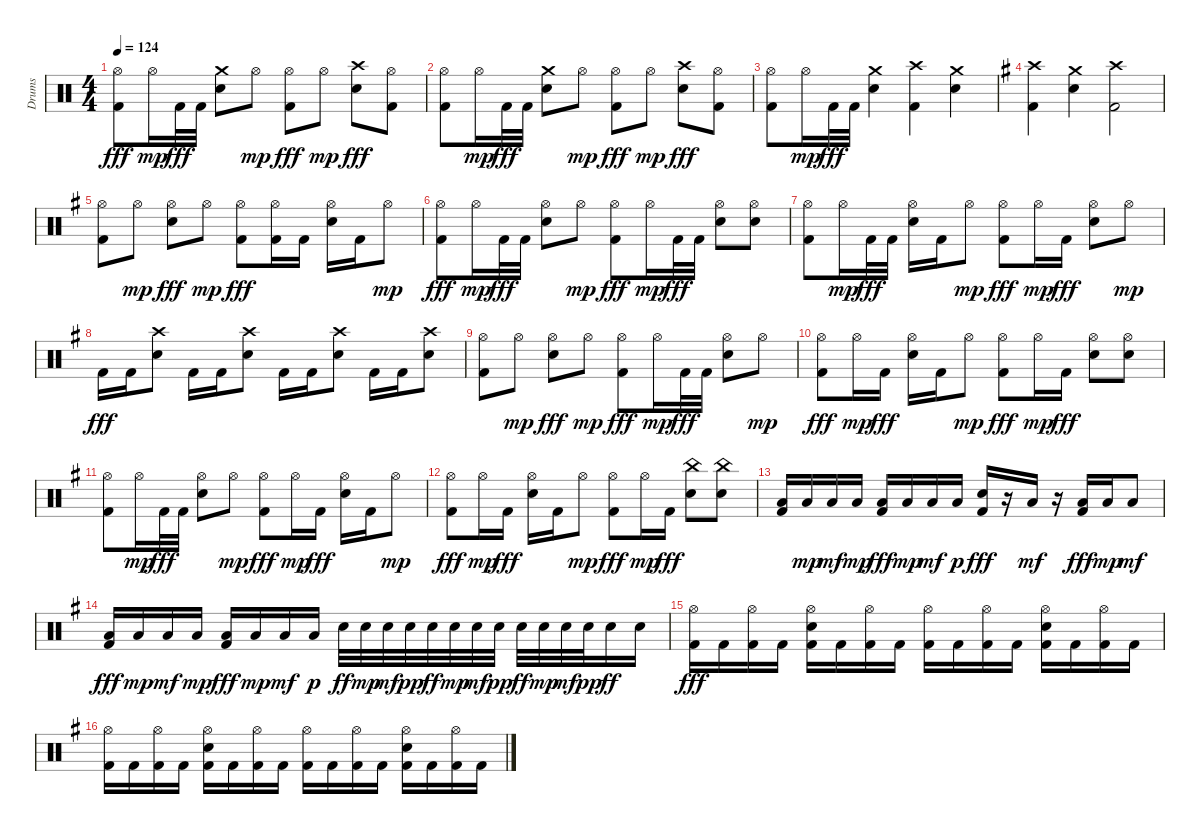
\track ("Drums" "Drums") {instrument percussion}
\staff {score}
\articulation defaults
\ts (4 4)
\tempo 124
\clef neutral
\ks c
("Hi-Hat (open)" "Kick (hit) 2").8{dy fff} "Hi-Hat (open)".16{dy mp} "Kick (hit) 2".32{dy fff} "Kick (hit) 2".32 ("Crash medium (hit)" "Electric Snare (hit)").8 "Hi-Hat (open)".8{dy mp} ("Hi-Hat (open)" "Kick (hit) 2").8{dy fff} "Hi-Hat (open)".8{dy mp} ("Crash high (hit)" "Electric Snare (hit)").8{dy fff} ("Hi-Hat (open)" "Kick (hit) 2").8 |
("Hi-Hat (open)" "Kick (hit) 2").8 "Hi-Hat (open)".16{dy mp} "Kick (hit) 2".32{dy fff} "Kick (hit) 2".32 ("Crash medium (hit)" "Electric Snare (hit)").8 "Hi-Hat (open)".8{dy mp} ("Hi-Hat (open)" "Kick (hit) 2").8{dy fff} "Hi-Hat (open)".8{dy mp} ("Crash high (hit)" "Electric Snare (hit)").8{dy fff} ("Hi-Hat (open)" "Kick (hit) 2").8 |
("Hi-Hat (open)" "Kick (hit) 2").8 "Hi-Hat (open)".16{dy mp} "Kick (hit) 2".32{dy fff} "Kick (hit) 2".32 ("Crash medium (hit)" "Electric Snare (hit)").4 ("Crash high (hit)" "Kick (hit) 2").4 ("Crash medium (hit)" "Electric Snare (hit)").4 |
\ks g
("Crash high (hit)" "Kick (hit) 2").4 ("Crash medium (hit)" "Electric Snare (hit)").4 ("Crash high (hit)" "Kick (hit) 2").2 |
("Hi-Hat (open)" "Kick (hit) 2").8 "Hi-Hat (open)".8{dy mp} ("Hi-Hat (open)" "Electric Snare (hit)").8{dy fff} "Hi-Hat (open)".8{dy mp} ("Hi-Hat (open)" "Kick (hit) 2").8{dy fff} ("Hi-Hat (open)" "Kick (hit) 2").16 "Kick (hit) 2".16 ("Hi-Hat (open)" "Electric Snare (hit)").16 "Kick (hit) 2".16 "Hi-Hat (open)".8{dy mp} |
("Hi-Hat (open)" "Kick (hit) 2").8{dy fff} "Hi-Hat (open)".16{dy mp} "Kick (hit) 2".32{dy fff} "Kick (hit) 2".32 ("Hi-Hat (open)" "Electric Snare (hit)").8 "Hi-Hat (open)".8{dy mp} ("Hi-Hat (open)" "Kick (hit) 2").8{dy fff} "Hi-Hat (open)".16{dy mp} "Kick (hit) 2".32{dy fff} "Kick (hit) 2".32 ("Hi-Hat (open)" "Electric Snare (hit)").8 ("Hi-Hat (open)" "Electric Snare (hit)").8 |
("Hi-Hat (open)" "Kick (hit) 2").8 "Hi-Hat (open)".16{dy mp} "Kick (hit) 2".32{dy fff} "Kick (hit) 2".32 ("Hi-Hat (open)" "Electric Snare (hit)").16 "Kick (hit) 2".16 "Hi-Hat (open)".8{dy mp} ("Hi-Hat (open)" "Kick (hit) 2").8{dy fff} "Hi-Hat (open)".16{dy mp} "Kick (hit) 2".16{dy fff} ("Hi-Hat (open)" "Electric Snare (hit)").8 "Hi-Hat (open)".8{dy mp} |
"Kick (hit) 2".16{dy fff} "Kick (hit) 2".16 ("Crash high (hit)" "Electric Snare (hit)").8 "Kick (hit) 2".16 "Kick (hit) 2".16 ("Crash high (hit)" "Electric Snare (hit)").8 "Kick (hit) 2".16 "Kick (hit) 2".16 ("Crash high (hit)" "Electric Snare (hit)").8 "Kick (hit) 2".16 "Kick (hit) 2".16 ("Crash high (hit)" "Electric Snare (hit)").8 |
("Hi-Hat (open)" "Kick (hit) 2").8 "Hi-Hat (open)".8{dy mp} ("Hi-Hat (open)" "Electric Snare (hit)").8{dy fff} "Hi-Hat (open)".8{dy mp} ("Hi-Hat (open)" "Kick (hit) 2").8{dy fff} "Hi-Hat (open)".16{dy mp} "Kick (hit) 2".32{dy fff} "Kick (hit) 2".32 ("Hi-Hat (open)" "Electric Snare (hit)").8 "Hi-Hat (open)".8{dy mp} |
("Hi-Hat (open)" "Kick (hit) 2").8{dy fff} "Hi-Hat (open)".16{dy mp} "Kick (hit) 2".16{dy fff} ("Hi-Hat (open)" "Electric Snare (hit)").16 "Kick (hit) 2".16 "Hi-Hat (open)".8{dy mp} ("Hi-Hat (open)" "Kick (hit) 2").8{dy fff} "Hi-Hat (open)".16{dy mp} "Kick (hit) 2".16{dy fff} ("Hi-Hat (open)" "Electric Snare (hit)").8 ("Hi-Hat (open)" "Electric Snare (hit)").8 |
("Hi-Hat (open)" "Kick (hit) 2").8 "Hi-Hat (open)".16{dy mp} "Kick (hit) 2".32{dy fff} "Kick (hit) 2".32 ("Hi-Hat (open)" "Electric Snare (hit)").8 "Hi-Hat (open)".8{dy mp} ("Hi-Hat (open)" "Kick (hit) 2").8{dy fff} "Hi-Hat (open)".16{dy mp} "Kick (hit) 2".16{dy fff} ("Hi-Hat (open)" "Electric Snare (hit)").16 "Kick (hit) 2".16 "Hi-Hat (open)".8{dy mp} |
("Hi-Hat (open)" "Kick (hit) 2").8{dy fff} "Hi-Hat (open)".16{dy mp} "Kick (hit) 2".16{dy fff} ("Hi-Hat (open)" "Electric Snare (hit)").16 "Kick (hit) 2".16 "Hi-Hat (open)".8{dy mp} ("Hi-Hat (open)" "Kick (hit) 2").8{dy fff} "Hi-Hat (open)".16{dy mp} "Kick (hit) 2".16{dy fff} ("China (hit)" "Electric Snare (hit)").8 ("China (hit)" "Electric Snare (hit)").8 |
("Low Floor Tom (hit)" "Kick (hit) 2").16 "Low Floor Tom (hit)".16{dy mp} "Low Floor Tom (hit)".16{dy mf} "Low Floor Tom (hit)".16{dy mp} ("Low Floor Tom (hit)" "Kick (hit) 2").16{dy fff} "Low Floor Tom (hit)".16{dy mp} "Low Floor Tom (hit)".16{dy mf} "Low Floor Tom (hit)".16{dy p} ("Electric Snare (hit)" "Kick (hit) 2").16{dy fff} r.16 "Low Floor Tom (hit)".16{dy mf} r.16 ("Low Floor Tom (hit)" "Kick (hit) 2").16{dy fff} "Low Floor Tom (hit)".16{dy mp} "Low Floor Tom (hit)".8{dy mf} |
("Low Floor Tom (hit)" "Kick (hit) 2").16{dy fff} "Low Floor Tom (hit)".16{dy mp} "Low Floor Tom (hit)".16{dy mf} "Low Floor Tom (hit)".16{dy mp} ("Low Floor Tom (hit)" "Kick (hit) 2").16{dy fff} "Low Floor Tom (hit)".16{dy mp} "Low Floor Tom (hit)".16{dy mf} "Low Floor Tom (hit)".16{dy p} "Electric Snare (hit)".32{dy ff} "Electric Snare (hit)".32{dy mp} "Electric Snare (hit)".32{dy mf} "Electric Snare (hit)".32{dy pp} "Electric Snare (hit)".32{dy ff} "Electric Snare (hit)".32{dy mp} "Electric Snare (hit)".32{dy mf} "Electric Snare (hit)".32{dy pp} "Electric Snare (hit)".32{dy ff} "Electric Snare (hit)".32{dy mp} "Electric Snare (hit)".32{dy mf} "Electric Snare (hit)".32{dy pp} "Electric Snare (hit)".16{dy ff} "Electric Snare (hit)".16 |
("Hi-Hat (open)" "Kick (hit) 2").16{dy fff} "Kick (hit) 2".16 ("Hi-Hat (open)" "Kick (hit) 2").16 "Kick (hit) 2".16 ("Hi-Hat (open)" "Electric Snare (hit)" "Kick (hit) 2").16 "Kick (hit) 2".16 ("Hi-Hat (open)" "Kick (hit) 2").16 "Kick (hit) 2".16 ("Hi-Hat (open)" "Kick (hit) 2").16 "Kick (hit) 2".16 ("Hi-Hat (open)" "Kick (hit) 2").16 "Kick (hit) 2".16 ("Hi-Hat (open)" "Electric Snare (hit)" "Kick (hit) 2").16 "Kick (hit) 2".16 ("Hi-Hat (open)" "Kick (hit) 2").16 "Kick (hit) 2".16 |
("Hi-Hat (open)" "Kick (hit) 2").16 "Kick (hit) 2".16 ("Hi-Hat (open)" "Kick (hit) 2").16 "Kick (hit) 2".16 ("Hi-Hat (open)" "Electric Snare (hit)" "Kick (hit) 2").16 "Kick (hit) 2".16 ("Hi-Hat (open)" "Kick (hit) 2").16 "Kick (hit) 2".16 ("Hi-Hat (open)" "Kick (hit) 2").16 "Kick (hit) 2".16 ("Hi-Hat (open)" "Kick (hit) 2").16 "Kick (hit) 2".16 ("Hi-Hat (open)" "Electric Snare (hit)" "Kick (hit) 2").16 "Kick (hit) 2".16 ("Hi-Hat (open)" "Kick (hit) 2").16 "Kick (hit) 2".16
